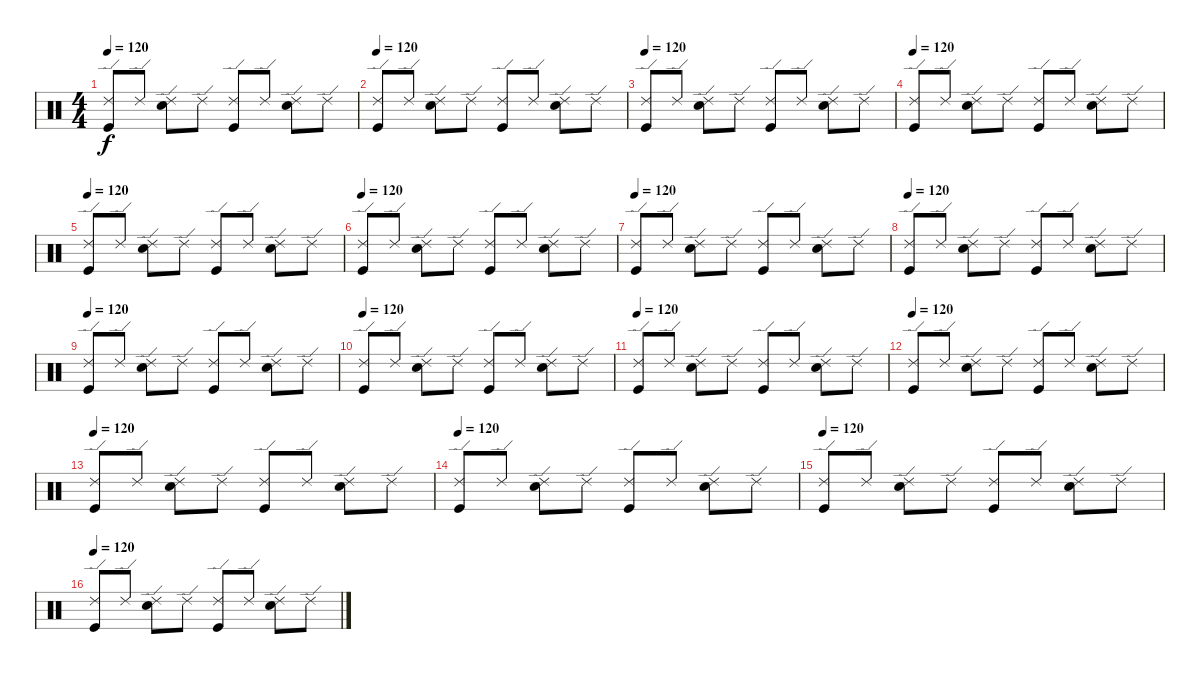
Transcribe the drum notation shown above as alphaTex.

\track "" {instrument percussion}
\staff {score}
\articulation defaults
\ts (4 4)
\tempo 120
\clef neutral
\ks c
("Kick (hit)" "Ride (edge) 2").8{dy f} "Ride (edge) 2".8 ("Ride (edge) 2" "Electric Snare (hit)").8 "Ride (edge) 2".8 ("Kick (hit)" "Ride (edge) 2").8 "Ride (edge) 2".8 ("Electric Snare (hit)" "Ride (edge) 2").8 "Ride (edge) 2".8 |
\tempo 120
("Kick (hit)" "Ride (edge) 2").8 "Ride (edge) 2".8 ("Ride (edge) 2" "Electric Snare (hit)").8 "Ride (edge) 2".8 ("Kick (hit)" "Ride (edge) 2").8 "Ride (edge) 2".8 ("Electric Snare (hit)" "Ride (edge) 2").8 "Ride (edge) 2".8 |
\tempo 120
("Kick (hit)" "Ride (edge) 2").8 "Ride (edge) 2".8 ("Ride (edge) 2" "Electric Snare (hit)").8 "Ride (edge) 2".8 ("Kick (hit)" "Ride (edge) 2").8 "Ride (edge) 2".8 ("Electric Snare (hit)" "Ride (edge) 2").8 "Ride (edge) 2".8 |
\tempo 120
("Kick (hit)" "Ride (edge) 2").8 "Ride (edge) 2".8 ("Ride (edge) 2" "Electric Snare (hit)").8 "Ride (edge) 2".8 ("Kick (hit)" "Ride (edge) 2").8 "Ride (edge) 2".8 ("Electric Snare (hit)" "Ride (edge) 2").8 "Ride (edge) 2".8 |
\tempo 120
("Kick (hit)" "Ride (edge) 2").8 "Ride (edge) 2".8 ("Ride (edge) 2" "Electric Snare (hit)").8 "Ride (edge) 2".8 ("Kick (hit)" "Ride (edge) 2").8 "Ride (edge) 2".8 ("Electric Snare (hit)" "Ride (edge) 2").8 "Ride (edge) 2".8 |
\tempo 120
("Kick (hit)" "Ride (edge) 2").8 "Ride (edge) 2".8 ("Ride (edge) 2" "Electric Snare (hit)").8 "Ride (edge) 2".8 ("Kick (hit)" "Ride (edge) 2").8 "Ride (edge) 2".8 ("Electric Snare (hit)" "Ride (edge) 2").8 "Ride (edge) 2".8 |
\tempo 120
("Kick (hit)" "Ride (edge) 2").8 "Ride (edge) 2".8 ("Ride (edge) 2" "Electric Snare (hit)").8 "Ride (edge) 2".8 ("Kick (hit)" "Ride (edge) 2").8 "Ride (edge) 2".8 ("Electric Snare (hit)" "Ride (edge) 2").8 "Ride (edge) 2".8 |
\tempo 120
("Kick (hit)" "Ride (edge) 2").8 "Ride (edge) 2".8 ("Ride (edge) 2" "Electric Snare (hit)").8 "Ride (edge) 2".8 ("Kick (hit)" "Ride (edge) 2").8 "Ride (edge) 2".8 ("Electric Snare (hit)" "Ride (edge) 2").8 "Ride (edge) 2".8 |
\tempo 120
("Kick (hit)" "Ride (edge) 2").8 "Ride (edge) 2".8 ("Ride (edge) 2" "Electric Snare (hit)").8 "Ride (edge) 2".8 ("Kick (hit)" "Ride (edge) 2").8 "Ride (edge) 2".8 ("Electric Snare (hit)" "Ride (edge) 2").8 "Ride (edge) 2".8 |
\tempo 120
("Kick (hit)" "Ride (edge) 2").8 "Ride (edge) 2".8 ("Ride (edge) 2" "Electric Snare (hit)").8 "Ride (edge) 2".8 ("Kick (hit)" "Ride (edge) 2").8 "Ride (edge) 2".8 ("Electric Snare (hit)" "Ride (edge) 2").8 "Ride (edge) 2".8 |
\tempo 120
("Kick (hit)" "Ride (edge) 2").8 "Ride (edge) 2".8 ("Ride (edge) 2" "Electric Snare (hit)").8 "Ride (edge) 2".8 ("Kick (hit)" "Ride (edge) 2").8 "Ride (edge) 2".8 ("Electric Snare (hit)" "Ride (edge) 2").8 "Ride (edge) 2".8 |
\tempo 120
("Kick (hit)" "Ride (edge) 2").8 "Ride (edge) 2".8 ("Ride (edge) 2" "Electric Snare (hit)").8 "Ride (edge) 2".8 ("Kick (hit)" "Ride (edge) 2").8 "Ride (edge) 2".8 ("Electric Snare (hit)" "Ride (edge) 2").8 "Ride (edge) 2".8 |
\tempo 120
("Kick (hit)" "Ride (edge) 2").8 "Ride (edge) 2".8 ("Ride (edge) 2" "Electric Snare (hit)").8 "Ride (edge) 2".8 ("Kick (hit)" "Ride (edge) 2").8 "Ride (edge) 2".8 ("Electric Snare (hit)" "Ride (edge) 2").8 "Ride (edge) 2".8 |
\tempo 120
("Kick (hit)" "Ride (edge) 2").8 "Ride (edge) 2".8 ("Ride (edge) 2" "Electric Snare (hit)").8 "Ride (edge) 2".8 ("Kick (hit)" "Ride (edge) 2").8 "Ride (edge) 2".8 ("Electric Snare (hit)" "Ride (edge) 2").8 "Ride (edge) 2".8 |
\tempo 120
("Kick (hit)" "Ride (edge) 2").8 "Ride (edge) 2".8 ("Ride (edge) 2" "Electric Snare (hit)").8 "Ride (edge) 2".8 ("Kick (hit)" "Ride (edge) 2").8 "Ride (edge) 2".8 ("Electric Snare (hit)" "Ride (edge) 2").8 "Ride (edge) 2".8 |
\tempo 120
("Kick (hit)" "Ride (edge) 2").8 "Ride (edge) 2".8 ("Ride (edge) 2" "Electric Snare (hit)").8 "Ride (edge) 2".8 ("Kick (hit)" "Ride (edge) 2").8 "Ride (edge) 2".8 ("Electric Snare (hit)" "Ride (edge) 2").8 "Ride (edge) 2".8
